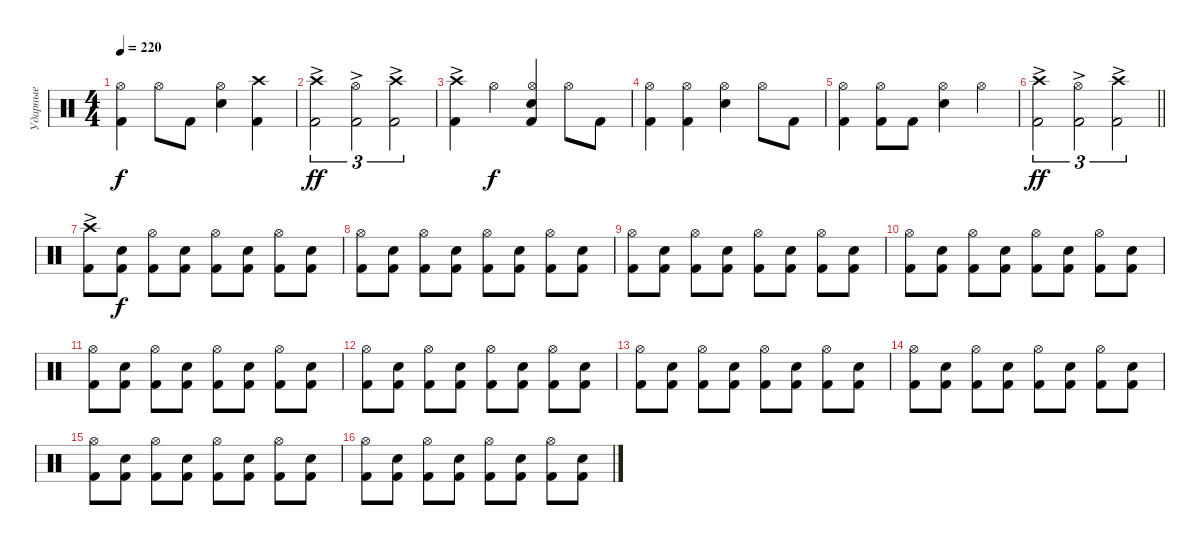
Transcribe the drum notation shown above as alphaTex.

\track ("Ударные" "Ударные") {instrument percussion}
\staff {score}
\articulation defaults
\ts (4 4)
\tempo 220
\clef neutral
\ks c
("Kick (hit) 2" "Hi-Hat (open)").4{dy f} "Hi-Hat (open)".8 "Kick (hit) 2".8 ("Snare (hit) 2" "Hi-Hat (open)").4 ("Kick (hit) 2" "Crash high (hit)").4 |
("Kick (hit) 2" "Crash high (hit)"{ac}).2{tu (3 2) dy ff} ("Kick (hit) 2" "Hi-Hat (open)"{ac}).2{tu (3 2)} ("Kick (hit) 2" "Crash high (hit)"{ac}).2{tu (3 2)} |
("Kick (hit) 2" "Crash high (hit)"{ac}).4 "Hi-Hat (open)".4{dy f} ("Kick (hit) 2" "Snare (hit) 2" "Hi-Hat (open)").4 "Hi-Hat (open)".8 "Kick (hit) 2".8 |
("Kick (hit) 2" "Hi-Hat (open)").4 ("Kick (hit) 2" "Hi-Hat (open)").4 ("Snare (hit) 2" "Hi-Hat (open)").4 "Hi-Hat (open)".8 "Kick (hit) 2".8 |
("Kick (hit) 2" "Hi-Hat (open)").4 ("Kick (hit) 2" "Hi-Hat (open)").8 "Kick (hit) 2".8 ("Snare (hit) 2" "Hi-Hat (open)").4 "Hi-Hat (open)".4 |
\barLineRight lightlight
("Kick (hit) 2" "Crash high (hit)"{ac}).2{tu (3 2) dy ff} ("Kick (hit) 2" "Hi-Hat (open)"{ac}).2{tu (3 2)} ("Kick (hit) 2" "Crash high (hit)"{ac}).2{tu (3 2)} |
("Kick (hit) 2" "Crash high (hit)"{ac}).8 ("Kick (hit) 2" "Snare (hit) 2").8{dy f} ("Kick (hit) 2" "Hi-Hat (open)").8 ("Kick (hit) 2" "Snare (hit) 2").8 ("Kick (hit) 2" "Hi-Hat (open)").8 ("Kick (hit) 2" "Snare (hit) 2").8 ("Kick (hit) 2" "Hi-Hat (open)").8 ("Kick (hit) 2" "Snare (hit) 2").8 |
("Kick (hit) 2" "Hi-Hat (open)").8 ("Kick (hit) 2" "Snare (hit) 2").8 ("Kick (hit) 2" "Hi-Hat (open)").8 ("Kick (hit) 2" "Snare (hit) 2").8 ("Kick (hit) 2" "Hi-Hat (open)").8 ("Kick (hit) 2" "Snare (hit) 2").8 ("Kick (hit) 2" "Hi-Hat (open)").8 ("Kick (hit) 2" "Snare (hit) 2").8 |
("Kick (hit) 2" "Hi-Hat (open)").8 ("Kick (hit) 2" "Snare (hit) 2").8 ("Kick (hit) 2" "Hi-Hat (open)").8 ("Kick (hit) 2" "Snare (hit) 2").8 ("Kick (hit) 2" "Hi-Hat (open)").8 ("Kick (hit) 2" "Snare (hit) 2").8 ("Kick (hit) 2" "Hi-Hat (open)").8 ("Kick (hit) 2" "Snare (hit) 2").8 |
("Kick (hit) 2" "Hi-Hat (open)").8 ("Kick (hit) 2" "Snare (hit) 2").8 ("Kick (hit) 2" "Hi-Hat (open)").8 ("Kick (hit) 2" "Snare (hit) 2").8 ("Kick (hit) 2" "Hi-Hat (open)").8 ("Kick (hit) 2" "Snare (hit) 2").8 ("Kick (hit) 2" "Hi-Hat (open)").8 ("Kick (hit) 2" "Snare (hit) 2").8 |
("Kick (hit) 2" "Hi-Hat (open)").8 ("Kick (hit) 2" "Snare (hit) 2").8 ("Kick (hit) 2" "Hi-Hat (open)").8 ("Kick (hit) 2" "Snare (hit) 2").8 ("Kick (hit) 2" "Hi-Hat (open)").8 ("Kick (hit) 2" "Snare (hit) 2").8 ("Kick (hit) 2" "Hi-Hat (open)").8 ("Kick (hit) 2" "Snare (hit) 2").8 |
("Kick (hit) 2" "Hi-Hat (open)").8 ("Kick (hit) 2" "Snare (hit) 2").8 ("Kick (hit) 2" "Hi-Hat (open)").8 ("Kick (hit) 2" "Snare (hit) 2").8 ("Kick (hit) 2" "Hi-Hat (open)").8 ("Kick (hit) 2" "Snare (hit) 2").8 ("Kick (hit) 2" "Hi-Hat (open)").8 ("Kick (hit) 2" "Snare (hit) 2").8 |
("Kick (hit) 2" "Hi-Hat (open)").8 ("Kick (hit) 2" "Snare (hit) 2").8 ("Kick (hit) 2" "Hi-Hat (open)").8 ("Kick (hit) 2" "Snare (hit) 2").8 ("Kick (hit) 2" "Hi-Hat (open)").8 ("Kick (hit) 2" "Snare (hit) 2").8 ("Kick (hit) 2" "Hi-Hat (open)").8 ("Kick (hit) 2" "Snare (hit) 2").8 |
("Kick (hit) 2" "Hi-Hat (open)").8 ("Kick (hit) 2" "Snare (hit) 2").8 ("Kick (hit) 2" "Hi-Hat (open)").8 ("Kick (hit) 2" "Snare (hit) 2").8 ("Kick (hit) 2" "Hi-Hat (open)").8 ("Kick (hit) 2" "Snare (hit) 2").8 ("Kick (hit) 2" "Hi-Hat (open)").8 ("Kick (hit) 2" "Snare (hit) 2").8 |
("Kick (hit) 2" "Hi-Hat (open)").8 ("Kick (hit) 2" "Snare (hit) 2").8 ("Kick (hit) 2" "Hi-Hat (open)").8 ("Kick (hit) 2" "Snare (hit) 2").8 ("Kick (hit) 2" "Hi-Hat (open)").8 ("Kick (hit) 2" "Snare (hit) 2").8 ("Kick (hit) 2" "Hi-Hat (open)").8 ("Kick (hit) 2" "Snare (hit) 2").8 |
("Kick (hit) 2" "Hi-Hat (open)").8 ("Kick (hit) 2" "Snare (hit) 2").8 ("Kick (hit) 2" "Hi-Hat (open)").8 ("Kick (hit) 2" "Snare (hit) 2").8 ("Kick (hit) 2" "Hi-Hat (open)").8 ("Kick (hit) 2" "Snare (hit) 2").8 ("Kick (hit) 2" "Hi-Hat (open)").8 ("Kick (hit) 2" "Snare (hit) 2").8
